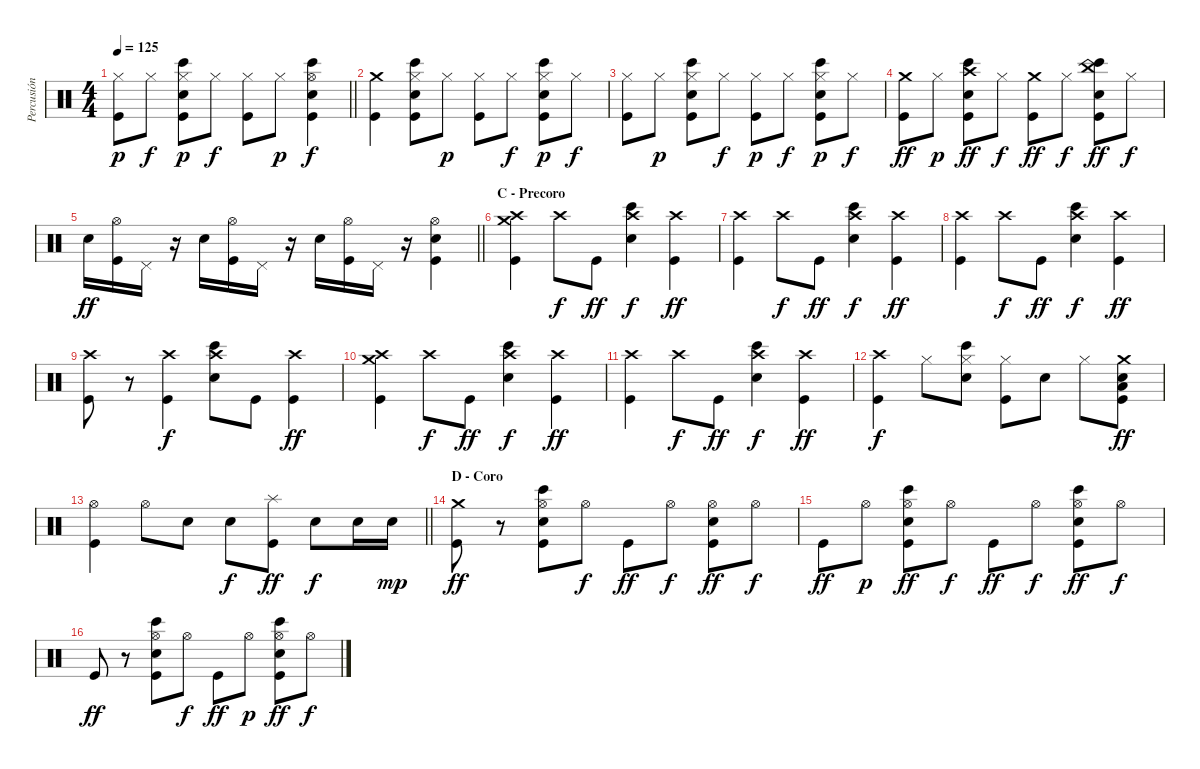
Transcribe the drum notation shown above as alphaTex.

\track ("Percusión" "Percusión") {instrument percussion}
\staff {score}
\articulation defaults
\ts (4 4)
\tempo 125
\clef neutral
\barLineRight lightlight
\ks c
("Hi-Hat (closed)" "Kick (hit)").8{dy p} "Hi-Hat (closed)".8{dy f} ("Hi-Hat (closed)" "Bongo High (hit)" "Snare (hit) 2" "Kick (hit)").8{dy p} "Hi-Hat (closed)".8{dy f} ("Hi-Hat (closed)" "Kick (hit)").8 "Hi-Hat (closed)".8{dy p} ("Hi-Hat (open)" "Bongo High (hit)" "Snare (hit) 2" "Kick (hit)").4{dy f} |
("Crash medium (hit)" "Kick (hit)").4 ("Hi-Hat (closed)" "Bongo High (hit)" "Snare (hit) 2" "Kick (hit)").8 "Hi-Hat (closed)".8{dy p} ("Hi-Hat (closed)" "Kick (hit)").8 "Hi-Hat (closed)".8{dy f} ("Hi-Hat (closed)" "Bongo High (hit)" "Snare (hit) 2" "Kick (hit)").8{dy p} "Hi-Hat (closed)".8{dy f} |
("Hi-Hat (closed)" "Kick (hit)").8 "Hi-Hat (closed)".8{dy p} ("Hi-Hat (closed)" "Bongo High (hit)" "Snare (hit) 2" "Kick (hit)").8 "Hi-Hat (closed)".8{dy f} ("Hi-Hat (closed)" "Kick (hit)").8{dy p} "Hi-Hat (closed)".8{dy f} ("Hi-Hat (closed)" "Bongo High (hit)" "Snare (hit) 2" "Kick (hit)").8{dy p} "Hi-Hat (closed)".8{dy f} |
("Crash medium (hit)" "Kick (hit)").8{dy ff} "Hi-Hat (closed)".8{dy p} ("Crash high (hit)" "Bongo High (hit)" "Snare (hit) 2" "Kick (hit)").8{dy ff} "Hi-Hat (closed)".8{dy f} ("Crash medium (hit)" "Kick (hit)").8{dy ff} "Hi-Hat (closed)".8{dy f} ("China (hit)" "Bongo High (hit)" "Snare (hit) 2" "Kick (hit)").8{dy ff} "Hi-Hat (closed)".8{dy f} |
\barLineRight lightlight "Snare (hit) 2".16{dy ff}
("Hi-Hat (open)" "Kick (hit)").16 "Pedal Hi-Hat (hit)".16 r.16 "Snare (hit) 2".16 ("Hi-Hat (open)" "Kick (hit)").16 "Pedal Hi-Hat (hit)".16 r.16 "Snare (hit) 2".16 ("Hi-Hat (open)" "Kick (hit)").16 "Pedal Hi-Hat (hit)".16 r.16 ("Hi-Hat (open)" "Snare (hit) 2" "Kick (hit)").4 |
\section ("" "C - Precoro")
("Crash high (hit)" "Crash medium (hit)" "Kick (hit)").4 "Crash high (hit)".8{dy f} "Kick (hit)".8{dy ff} ("Crash high (hit)" "Bongo High (hit)" "Snare (hit) 2").4{dy f} ("Crash high (hit)" "Kick (hit)").4{dy ff} |
("Crash high (hit)" "Kick (hit)").4 "Crash high (hit)".8{dy f} "Kick (hit)".8{dy ff} ("Crash high (hit)" "Bongo High (hit)" "Snare (hit) 2").4{dy f} ("Crash high (hit)" "Kick (hit)").4{dy ff} |
("Crash high (hit)" "Kick (hit)").4 "Crash high (hit)".8{dy f} "Kick (hit)".8{dy ff} ("Crash high (hit)" "Bongo High (hit)" "Snare (hit) 2").4{dy f} ("Crash high (hit)" "Kick (hit)").4{dy ff} |
("Crash high (hit)" "Kick (hit)").8 r.8 ("Crash high (hit)" "Kick (hit)").4{dy f} ("Crash high (hit)" "Bongo High (hit)" "Snare (hit) 2").8 "Kick (hit)".8 ("Crash high (hit)" "Kick (hit)").4{dy ff} |
("Crash high (hit)" "Crash medium (hit)" "Kick (hit)").4 "Crash high (hit)".8{dy f} "Kick (hit)".8{dy ff} ("Crash high (hit)" "Bongo High (hit)" "Snare (hit) 2").4{dy f} ("Crash high (hit)" "Kick (hit)").4{dy ff} |
("Crash high (hit)" "Kick (hit)").4 "Crash high (hit)".8{dy f} "Kick (hit)".8{dy ff} ("Crash high (hit)" "Bongo High (hit)" "Snare (hit) 2").4{dy f} ("Crash high (hit)" "Kick (hit)").4{dy ff} |
("Crash high (hit)" "Kick (hit)").4{dy f} "Hi-Hat (closed)".8 ("Hi-Hat (closed)" "Bongo High (hit)" "Snare (hit) 2").8 ("Hi-Hat (closed)" "Kick (hit)").8 "Snare (hit) 2".8 "Hi-Hat (closed)".8 ("Crash medium (hit)" "Low Tom (hit)" "Snare (hit) 2" "Kick (hit)").8{dy ff} |
\barLineRight lightlight
("Hi-Hat (open)" "Kick (hit)").4 "Hi-Hat (open)".8 "Snare (hit) 2".8 "Snare (hit) 2".8{dy f} ("Splash (hit)" "Kick (hit)").8{dy ff} "Snare (hit) 2".8{dy f} "Snare (hit) 2".16 "Snare (hit) 2".16{dy mp} |
\section ("" "D - Coro")
("Crash medium (hit)" "Kick (hit)").8{dy ff} r.8 ("Hi-Hat (open)" "Bongo High (hit)" "Snare (hit) 2" "Kick (hit)").8 "Hi-Hat (open)".8{dy f} "Kick (hit)".8{dy ff} "Hi-Hat (open)".8{dy f} ("Hi-Hat (open)" "Snare (hit) 2" "Kick (hit)").8{dy ff} "Hi-Hat (open)".8{dy f} |
"Kick (hit)".8{dy ff} "Hi-Hat (open)".8{dy p} ("Hi-Hat (open)" "Bongo High (hit)" "Snare (hit) 2" "Kick (hit)").8{dy ff} "Hi-Hat (open)".8{dy f} "Kick (hit)".8{dy ff} "Hi-Hat (open)".8{dy f} ("Hi-Hat (open)" "Bongo High (hit)" "Snare (hit) 2" "Kick (hit)").8{dy ff} "Hi-Hat (open)".8{dy f} |
"Kick (hit)".8{dy ff} r.8 ("Hi-Hat (open)" "Bongo High (hit)" "Snare (hit) 2" "Kick (hit)").8 "Hi-Hat (open)".8{dy f} "Kick (hit)".8{dy ff} "Hi-Hat (open)".8{dy p} ("Hi-Hat (open)" "Bongo High (hit)" "Snare (hit) 2" "Kick (hit)").8{dy ff} "Hi-Hat (open)".8{dy f}
